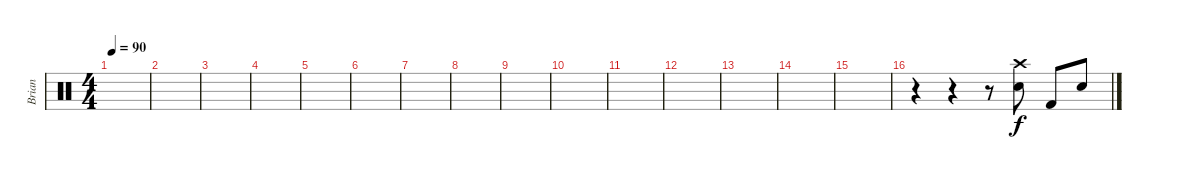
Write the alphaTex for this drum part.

\track ("Brian" "Brian") {instrument percussion}
\staff {score}
\articulation defaults
\ts (4 4)
\tempo 90
\clef neutral
\ks c
|
|
|
|
|
|
|
|
|
|
|
|
|
|
|
r.4 r.4 r.8 ("Crash high (hit)" "Electric Snare (hit)").8 "Kick (hit) 2".8 "Electric Snare (hit)".8
